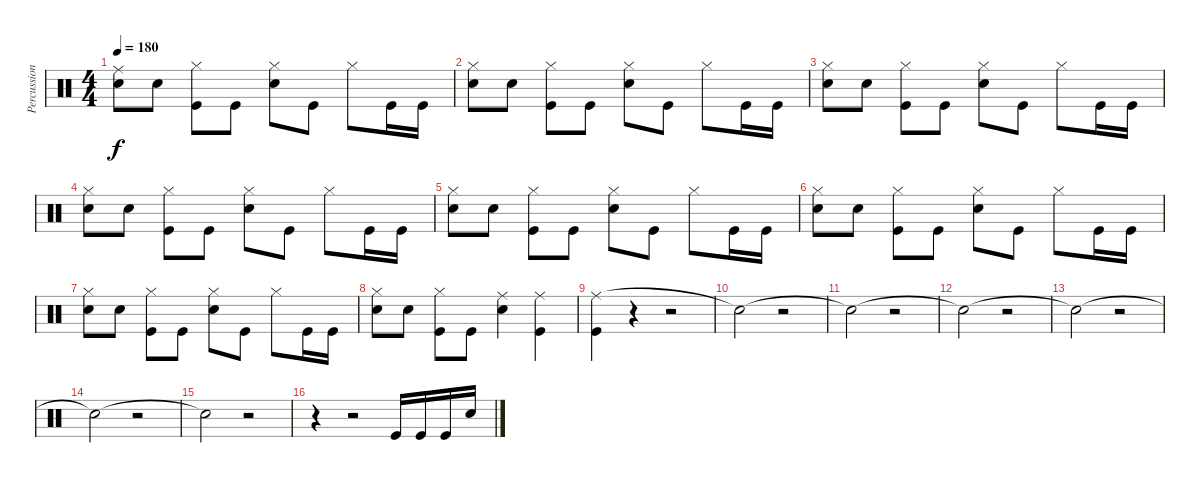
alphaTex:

\track ("Percussion" "Percussion") {instrument percussion}
\staff {score}
\articulation defaults
\ts (4 4)
\tempo 180
\clef neutral
\ks c
("Ride (middle)" "Snare (hit) 2").8{dy f} "Snare (hit) 2".8 ("Hi-Hat (closed)" "Kick (hit)").8 "Kick (hit)".8 ("Hi-Hat (closed)" "Snare (hit) 2").8 "Kick (hit)".8 "Hi-Hat (closed)".8 "Kick (hit)".16 "Kick (hit)".16 |
("Hi-Hat (closed)" "Snare (hit) 2").8 "Snare (hit) 2".8 ("Hi-Hat (closed)" "Kick (hit)").8 "Kick (hit)".8 ("Hi-Hat (closed)" "Snare (hit) 2").8 "Kick (hit)".8 "Hi-Hat (closed)".8 "Kick (hit)".16 "Kick (hit)".16 |
("Hi-Hat (closed)" "Snare (hit) 2").8 "Snare (hit) 2".8 ("Hi-Hat (closed)" "Kick (hit)").8 "Kick (hit)".8 ("Hi-Hat (closed)" "Snare (hit) 2").8 "Kick (hit)".8 "Hi-Hat (closed)".8 "Kick (hit)".16 "Kick (hit)".16 |
("Hi-Hat (closed)" "Snare (hit) 2").8 "Snare (hit) 2".8 ("Hi-Hat (closed)" "Kick (hit)").8 "Kick (hit)".8 ("Hi-Hat (closed)" "Snare (hit) 2").8 "Kick (hit)".8 "Hi-Hat (closed)".8 "Kick (hit)".16 "Kick (hit)".16 |
("Hi-Hat (closed)" "Snare (hit) 2").8 "Snare (hit) 2".8 ("Hi-Hat (closed)" "Kick (hit)").8 "Kick (hit)".8 ("Hi-Hat (closed)" "Snare (hit) 2").8 "Kick (hit)".8 "Hi-Hat (closed)".8 "Kick (hit)".16 "Kick (hit)".16 |
("Hi-Hat (closed)" "Snare (hit) 2").8 "Snare (hit) 2".8 ("Hi-Hat (closed)" "Kick (hit)").8 "Kick (hit)".8 ("Hi-Hat (closed)" "Snare (hit) 2").8 "Kick (hit)".8 "Hi-Hat (closed)".8 "Kick (hit)".16 "Kick (hit)".16 |
("Hi-Hat (closed)" "Snare (hit) 2").8 "Snare (hit) 2".8 ("Hi-Hat (closed)" "Kick (hit)").8 "Kick (hit)".8 ("Hi-Hat (closed)" "Snare (hit) 2").8 "Kick (hit)".8 "Hi-Hat (closed)".8 "Kick (hit)".16 "Kick (hit)".16 |
("Hi-Hat (closed)" "Snare (hit) 2").8 "Snare (hit) 2".8 ("Hi-Hat (closed)" "Kick (hit)").8 "Kick (hit)".8 ("Ride (middle)" "Snare (hit) 2").4 ("Ride (middle)" "Kick (hit)").4 |
("Ride (middle)" "Kick (hit)").4 r.4 r.2 |
"Snare (hit)"{t}.2 r.2 |
"Snare (hit)"{t}.2 r.2 |
"Snare (hit)"{t}.2 r.2 |
"Snare (hit)"{t}.2{volume 0} r.2 |
"Snare (hit)"{t}.2 r.2 |
"Snare (hit)"{t}.2 r.2 |
r.4 r.2 "Kick (hit)".16 "Kick (hit)".16 "Kick (hit)".16 "Snare (hit) 2".16
